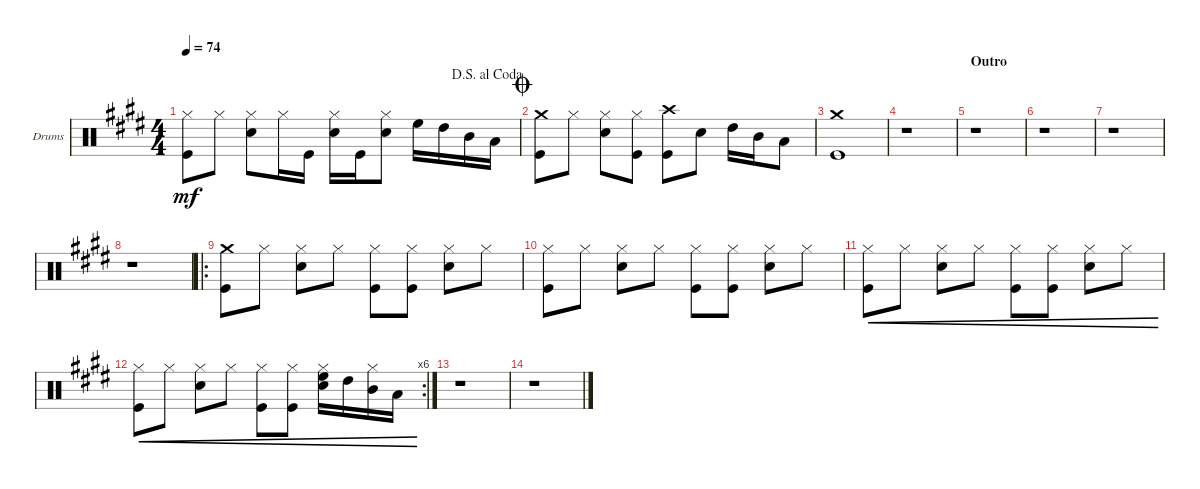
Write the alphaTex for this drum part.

\bracketExtendMode groupsimilarinstruments
\useSystemSignSeparator
\multiTrackTrackNamePolicy allsystems
\firstSystemTrackNameOrientation horizontal
\otherSystemsTrackNameOrientation horizontal
\track ("Drums" "Drums") {instrument percussion}
\staff {score}
\articulation defaults
\ts (4 4)
\jump dalsegnoalcoda
\tempo 74
\clef neutral
\ks c#minor
("Kick (hit)" "Hi-Hat (closed)").8{dy mf} "Hi-Hat (closed)".8 ("Snare (hit) 2" "Hi-Hat (closed)").8 "Hi-Hat (closed)".16 "Kick (hit)".16 ("Snare (hit) 2" "Hi-Hat (closed)").16 "Kick (hit)".16 ("Snare (hit) 2" "Hi-Hat (closed)").8 "High Floor Tom (hit)".16 "High Tom (hit)".16 "Mid Tom (hit)".16 "Low Tom (hit)".16 |
\jump coda
("Kick (hit)" "Crash medium (hit)").8 "Hi-Hat (closed)".8 ("Snare (hit) 2" "Hi-Hat (closed)").8 ("Kick (hit)" "Hi-Hat (closed)").8 ("Kick (hit)" "Crash high (hit)").8 "Snare (hit) 2".8 "High Tom (hit)".16 "Mid Tom (hit)".16 "Low Tom (hit)".8 |
("Kick (hit)" "Crash medium (hit)").1 |
r.1 |
\section ("" "Outro")
r.1 |
r.1 |
r.1 |
r.1 |
\ro
("Kick (hit)" "Crash medium (hit)").8 "Hi-Hat (closed)".8 ("Snare (hit) 2" "Hi-Hat (closed)").8 "Hi-Hat (closed)".8 ("Kick (hit)" "Hi-Hat (closed)").8 ("Kick (hit)" "Hi-Hat (closed)").8 ("Snare (hit) 2" "Hi-Hat (closed)").8 "Hi-Hat (closed)".8 |
("Kick (hit)" "Hi-Hat (closed)").8 "Hi-Hat (closed)".8 ("Snare (hit) 2" "Hi-Hat (closed)").8 "Hi-Hat (closed)".8 ("Kick (hit)" "Hi-Hat (closed)").8 ("Kick (hit)" "Hi-Hat (closed)").8 ("Snare (hit) 2" "Hi-Hat (closed)").8 "Hi-Hat (closed)".8 |
("Kick (hit)" "Hi-Hat (closed)").8{cre} "Hi-Hat (closed)".8{cre} ("Snare (hit) 2" "Hi-Hat (closed)").8{cre} "Hi-Hat (closed)".8{cre} ("Kick (hit)" "Hi-Hat (closed)").8{cre} ("Kick (hit)" "Hi-Hat (closed)").8{cre} ("Snare (hit) 2" "Hi-Hat (closed)").8{cre} "Hi-Hat (closed)".8{cre} |
\rc 6
("Kick (hit)" "Hi-Hat (closed)").8{cre} "Hi-Hat (closed)".8{cre} ("Snare (hit) 2" "Hi-Hat (closed)").8{cre} "Hi-Hat (closed)".8{cre} ("Kick (hit)" "Hi-Hat (closed)").8{cre} ("Kick (hit)" "Hi-Hat (closed)").8{cre} ("Snare (hit) 2" "Hi-Hat (closed)" "High Floor Tom (hit)").16{cre} "High Tom (hit)".16{cre} ("Hi-Hat (closed)" "Mid Tom (hit)").16{cre} "Low Tom (hit)".16{cre} |
r.1 |
r.1
